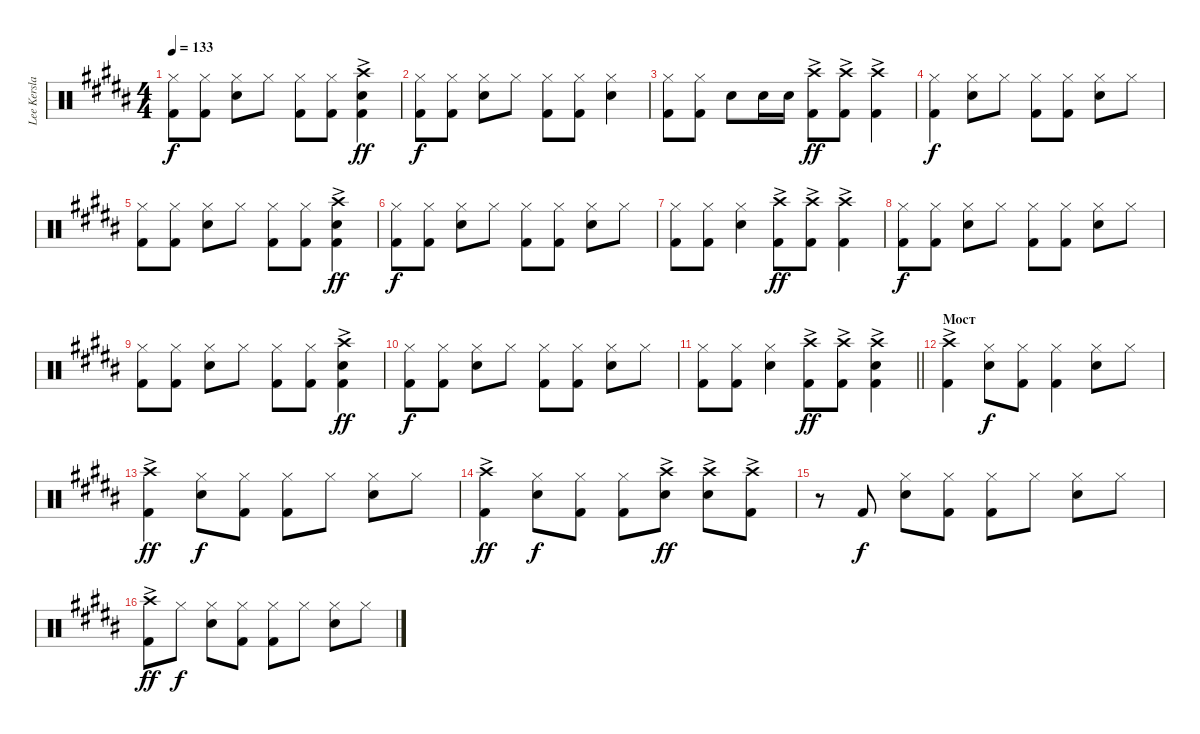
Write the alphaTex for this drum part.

\track ("Lee Kerslake" "Lee Kersla") {instrument percussion}
\staff {score}
\articulation defaults
\ts (4 4)
\tempo 133
\clef neutral
\ks b
("Hi-Hat (closed)" "Kick (hit) 2").8{dy f} ("Hi-Hat (closed)" "Kick (hit) 2").8 ("Snare (hit) 2" "Hi-Hat (closed)").8 "Hi-Hat (closed)".8 ("Hi-Hat (closed)" "Kick (hit) 2").8 ("Hi-Hat (closed)" "Kick (hit) 2").8 ("Snare (hit) 2" "Crash high (hit)"{ac} "Kick (hit) 2").4{dy ff} |
("Hi-Hat (closed)" "Kick (hit) 2").8{dy f} ("Hi-Hat (closed)" "Kick (hit) 2").8 ("Snare (hit) 2" "Hi-Hat (closed)").8 "Hi-Hat (closed)".8 ("Hi-Hat (closed)" "Kick (hit) 2").8 ("Hi-Hat (closed)" "Kick (hit) 2").8 ("Snare (hit) 2" "Hi-Hat (closed)").4 |
("Hi-Hat (closed)" "Kick (hit) 2").8 ("Hi-Hat (closed)" "Kick (hit) 2").8 "Snare (hit) 2".8 "Snare (hit) 2".16 "Snare (hit) 2".16 ("Kick (hit) 2" "Crash high (hit)"{ac}).8{dy ff} ("Kick (hit) 2" "Crash high (hit)"{ac}).8 ("Kick (hit) 2" "Crash high (hit)"{ac}).4 |
("Hi-Hat (closed)" "Kick (hit) 2").4{dy f} ("Snare (hit) 2" "Hi-Hat (closed)").8 "Hi-Hat (closed)".8 ("Hi-Hat (closed)" "Kick (hit) 2").8 ("Hi-Hat (closed)" "Kick (hit) 2").8 ("Snare (hit) 2" "Hi-Hat (closed)").8 "Hi-Hat (closed)".8 |
("Hi-Hat (closed)" "Kick (hit) 2").8 ("Hi-Hat (closed)" "Kick (hit) 2").8 ("Snare (hit) 2" "Hi-Hat (closed)").8 "Hi-Hat (closed)".8 ("Hi-Hat (closed)" "Kick (hit) 2").8 ("Hi-Hat (closed)" "Kick (hit) 2").8 ("Snare (hit) 2" "Crash high (hit)"{ac} "Kick (hit) 2").4{dy ff} |
("Hi-Hat (closed)" "Kick (hit) 2").8{dy f} ("Hi-Hat (closed)" "Kick (hit) 2").8 ("Snare (hit) 2" "Hi-Hat (closed)").8 "Hi-Hat (closed)".8 ("Hi-Hat (closed)" "Kick (hit) 2").8 ("Hi-Hat (closed)" "Kick (hit) 2").8 ("Snare (hit) 2" "Hi-Hat (closed)").8 "Hi-Hat (closed)".8 |
("Hi-Hat (closed)" "Kick (hit) 2").8 ("Hi-Hat (closed)" "Kick (hit) 2").8 ("Snare (hit) 2" "Hi-Hat (closed)").4 ("Kick (hit) 2" "Crash high (hit)"{ac}).8{dy ff} ("Kick (hit) 2" "Crash high (hit)"{ac}).8 ("Kick (hit) 2" "Crash high (hit)"{ac}).4 |
("Hi-Hat (closed)" "Kick (hit) 2").8{dy f} ("Hi-Hat (closed)" "Kick (hit) 2").8 ("Snare (hit) 2" "Hi-Hat (closed)").8 "Hi-Hat (closed)".8 ("Hi-Hat (closed)" "Kick (hit) 2").8 ("Hi-Hat (closed)" "Kick (hit) 2").8 ("Snare (hit) 2" "Hi-Hat (closed)").8 "Hi-Hat (closed)".8 |
("Hi-Hat (closed)" "Kick (hit) 2").8 ("Hi-Hat (closed)" "Kick (hit) 2").8 ("Snare (hit) 2" "Hi-Hat (closed)").8 "Hi-Hat (closed)".8 ("Hi-Hat (closed)" "Kick (hit) 2").8 ("Hi-Hat (closed)" "Kick (hit) 2").8 ("Snare (hit) 2" "Crash high (hit)"{ac} "Kick (hit) 2").4{dy ff} |
("Hi-Hat (closed)" "Kick (hit) 2").8{dy f} ("Hi-Hat (closed)" "Kick (hit) 2").8 ("Snare (hit) 2" "Hi-Hat (closed)").8 "Hi-Hat (closed)".8 ("Hi-Hat (closed)" "Kick (hit) 2").8 ("Hi-Hat (closed)" "Kick (hit) 2").8 ("Snare (hit) 2" "Hi-Hat (closed)").8 "Hi-Hat (closed)".8 |
\barLineRight lightlight
("Hi-Hat (closed)" "Kick (hit) 2").8 ("Hi-Hat (closed)" "Kick (hit) 2").8 ("Snare (hit) 2" "Hi-Hat (closed)").4 ("Kick (hit) 2" "Crash high (hit)"{ac}).8{dy ff} ("Kick (hit) 2" "Crash high (hit)"{ac}).8 ("Kick (hit) 2" "Crash high (hit)"{ac} "Snare (hit) 2").4 |
\section ("" "Мост")
("Crash high (hit)"{ac} "Kick (hit) 2").4 ("Snare (hit) 2" "Hi-Hat (closed)").8{dy f} ("Hi-Hat (closed)" "Kick (hit) 2").8 ("Hi-Hat (closed)" "Kick (hit) 2").4 ("Snare (hit) 2" "Hi-Hat (closed)").8 "Hi-Hat (closed)".8 |
("Crash high (hit)"{ac} "Kick (hit) 2").4{dy ff} ("Snare (hit) 2" "Hi-Hat (closed)").8{dy f} ("Hi-Hat (closed)" "Kick (hit) 2").8 ("Hi-Hat (closed)" "Kick (hit) 2").8 "Hi-Hat (closed)".8 ("Snare (hit) 2" "Hi-Hat (closed)").8 "Hi-Hat (closed)".8 |
("Crash high (hit)"{ac} "Kick (hit) 2").4{dy ff} ("Snare (hit) 2" "Hi-Hat (closed)").8{dy f} ("Hi-Hat (closed)" "Kick (hit) 2").8 ("Hi-Hat (closed)" "Kick (hit) 2").8 ("Snare (hit) 2" "Crash high (hit)"{ac}).8{dy ff} ("Snare (hit) 2" "Crash high (hit)"{ac}).8 ("Crash high (hit)"{ac} "Kick (hit) 2").8 |
r.8 "Kick (hit) 2".8{dy f} ("Snare (hit) 2" "Hi-Hat (closed)").8 ("Hi-Hat (closed)" "Kick (hit) 2").8 ("Hi-Hat (closed)" "Kick (hit) 2").8 "Hi-Hat (closed)".8 ("Snare (hit) 2" "Hi-Hat (closed)").8 "Hi-Hat (closed)".8 |
("Kick (hit) 2" "Crash high (hit)"{ac}).8{dy ff} "Hi-Hat (closed)".8{dy f} ("Snare (hit) 2" "Hi-Hat (closed)").8 ("Hi-Hat (closed)" "Kick (hit) 2").8 ("Hi-Hat (closed)" "Kick (hit) 2").8 "Hi-Hat (closed)".8 ("Snare (hit) 2" "Hi-Hat (closed)").8 "Hi-Hat (closed)".8
